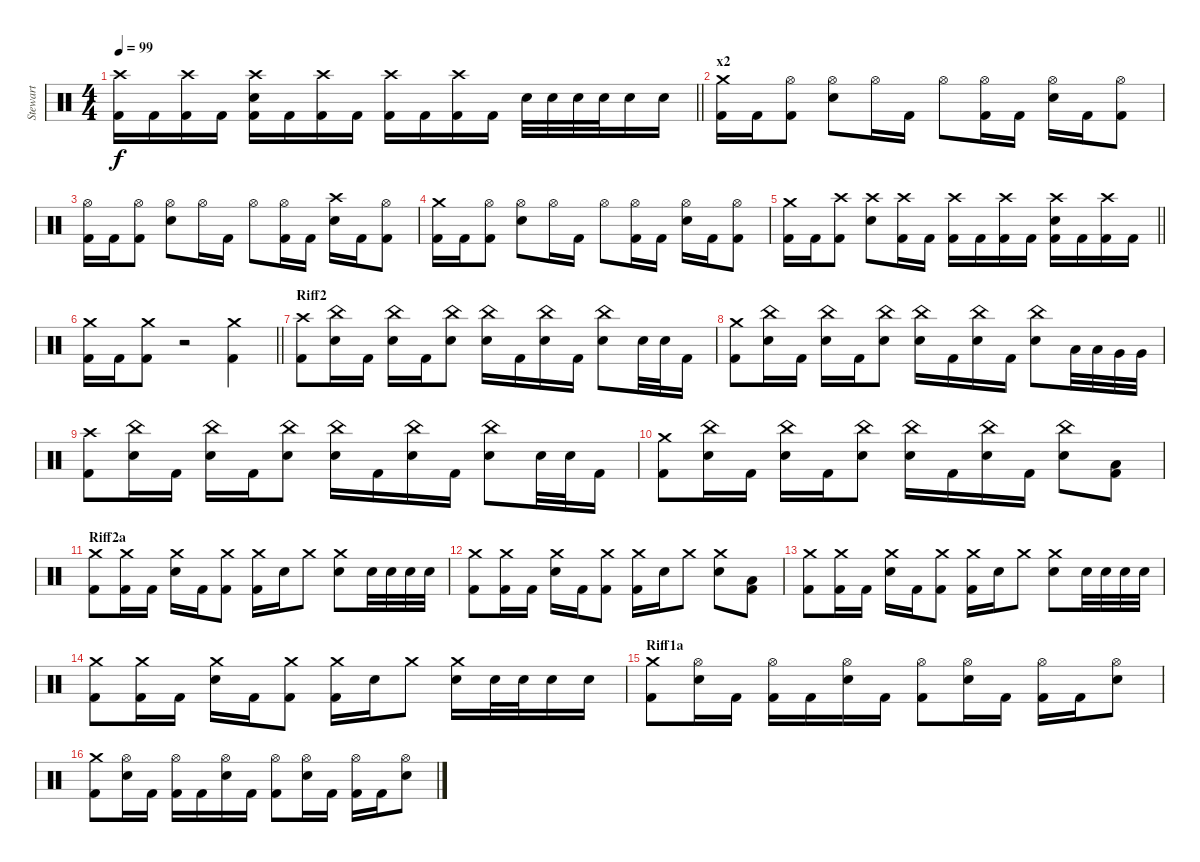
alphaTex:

\track ("Stewart" "Stewart") {instrument percussion}
\staff {score}
\articulation defaults
\ts (4 4)
\tempo 99
\clef neutral
\barLineRight lightlight
\ks c
("Crash high (hit)" "Kick (hit) 2").16{dy f} "Kick (hit) 2".16 ("Crash high (hit)" "Kick (hit) 2").16 "Kick (hit) 2".16 ("Crash high (hit)" "Electric Snare (hit)" "Kick (hit) 2").16 "Kick (hit) 2".16 ("Crash high (hit)" "Kick (hit) 2").16 "Kick (hit) 2".16 ("Crash high (hit)" "Kick (hit) 2").16 "Kick (hit) 2".16 ("Crash high (hit)" "Kick (hit) 2").16 "Kick (hit) 2".16 "Electric Snare (hit)".32 "Electric Snare (hit)".32 "Electric Snare (hit)".32 "Electric Snare (hit)".32 "Electric Snare (hit)".16 "Electric Snare (hit)".16 |
\section ("" "x2")
("Crash medium (hit)" "Kick (hit) 2").16 "Kick (hit) 2".16 ("Hi-Hat (open)" "Kick (hit) 2").8 ("Hi-Hat (open)" "Electric Snare (hit)").8 "Hi-Hat (open)".16 "Kick (hit) 2".16 "Hi-Hat (open)".8 ("Hi-Hat (open)" "Kick (hit) 2").16 "Kick (hit) 2".16 ("Hi-Hat (open)" "Electric Snare (hit)").16 "Kick (hit) 2".16 ("Hi-Hat (open)" "Kick (hit) 2").8 |
("Hi-Hat (open)" "Kick (hit) 2").16 "Kick (hit) 2".16 ("Hi-Hat (open)" "Kick (hit) 2").8 ("Hi-Hat (open)" "Electric Snare (hit)").8 "Hi-Hat (open)".16 "Kick (hit) 2".16 "Hi-Hat (open)".8 ("Hi-Hat (open)" "Kick (hit) 2").16 "Kick (hit) 2".16 ("Crash high (hit)" "Electric Snare (hit)").16 "Kick (hit) 2".16 ("Hi-Hat (open)" "Kick (hit) 2").8 |
("Crash medium (hit)" "Kick (hit) 2").16 "Kick (hit) 2".16 ("Hi-Hat (open)" "Kick (hit) 2").8 ("Hi-Hat (open)" "Electric Snare (hit)").8 "Hi-Hat (open)".16 "Kick (hit) 2".16 "Hi-Hat (open)".8 ("Hi-Hat (open)" "Kick (hit) 2").16 "Kick (hit) 2".16 ("Hi-Hat (open)" "Electric Snare (hit)").16 "Kick (hit) 2".16 ("Hi-Hat (open)" "Kick (hit) 2").8 |
\barLineRight lightlight
("Crash medium (hit)" "Kick (hit) 2").16 "Kick (hit) 2".16 ("Crash high (hit)" "Kick (hit) 2").8 ("Crash high (hit)" "Electric Snare (hit)").8 ("Crash high (hit)" "Kick (hit) 2").16 "Kick (hit) 2".16 ("Crash high (hit)" "Kick (hit) 2").16 "Kick (hit) 2".16 ("Crash high (hit)" "Kick (hit) 2").16 "Kick (hit) 2".16 ("Crash high (hit)" "Electric Snare (hit)" "Kick (hit) 2").16 "Kick (hit) 2".16 ("Crash high (hit)" "Kick (hit) 2").16 "Kick (hit) 2".16 |
\barLineRight lightlight
("Crash medium (hit)" "Kick (hit) 2").16 "Kick (hit) 2".16 ("Crash medium (hit)" "Kick (hit) 2").8 r.2 ("Crash medium (hit)" "Kick (hit) 2").4 |
\section ("" "Riff2")
("Crash high (hit)" "Kick (hit) 2").8 ("China (hit)" "Electric Snare (hit)").16 "Kick (hit) 2".16 ("China (hit)" "Electric Snare (hit)").16 "Kick (hit) 2".16 ("China (hit)" "Electric Snare (hit)").8 ("China (hit)" "Electric Snare (hit)").16 "Kick (hit) 2".16 ("China (hit)" "Electric Snare (hit)").16 "Kick (hit) 2".16 ("China (hit)" "Electric Snare (hit)").8 "Electric Snare (hit)".32 "Electric Snare (hit)".32 "Kick (hit) 2".16 |
("Crash medium (hit)" "Kick (hit) 2").8 ("China (hit)" "Electric Snare (hit)").16 "Kick (hit) 2".16 ("China (hit)" "Electric Snare (hit)").16 "Kick (hit) 2".16 ("China (hit)" "Electric Snare (hit)").8 ("China (hit)" "Electric Snare (hit)").16 "Kick (hit) 2".16 ("China (hit)" "Electric Snare (hit)").16 "Kick (hit) 2".16 ("China (hit)" "Electric Snare (hit)").8 "Low Tom (hit)".32 "Low Tom (hit)".32 "Very Low Tom (hit)".32 "Very Low Tom (hit)".32 |
("Crash high (hit)" "Kick (hit) 2").8 ("China (hit)" "Electric Snare (hit)").16 "Kick (hit) 2".16 ("China (hit)" "Electric Snare (hit)").16 "Kick (hit) 2".16 ("China (hit)" "Electric Snare (hit)").8 ("China (hit)" "Electric Snare (hit)").16 "Kick (hit) 2".16 ("China (hit)" "Electric Snare (hit)").16 "Kick (hit) 2".16 ("China (hit)" "Electric Snare (hit)").8 "Electric Snare (hit)".32 "Electric Snare (hit)".32 "Kick (hit) 2".16 |
("Crash medium (hit)" "Kick (hit) 2").8 ("China (hit)" "Electric Snare (hit)").16 "Kick (hit) 2".16 ("China (hit)" "Electric Snare (hit)").16 "Kick (hit) 2".16 ("China (hit)" "Electric Snare (hit)").8 ("China (hit)" "Electric Snare (hit)").16 "Kick (hit) 2".16 ("China (hit)" "Electric Snare (hit)").16 "Kick (hit) 2".16 ("China (hit)" "Electric Snare (hit)").8 ("Low Tom (hit)" "Kick (hit) 2").8 |
\section ("" "Riff2a")
("Crash medium (hit)" "Kick (hit) 2").8 ("Crash medium (hit)" "Kick (hit) 2").16 "Kick (hit) 2".16 ("Crash medium (hit)" "Electric Snare (hit)").16 "Kick (hit) 2".16 ("Crash medium (hit)" "Kick (hit) 2").8 ("Crash medium (hit)" "Kick (hit) 2").16 "Electric Snare (hit)".16 "Crash medium (hit)".8 ("Crash medium (hit)" "Electric Snare (hit)").8 "Electric Snare (hit)".32 "Electric Snare (hit)".32 "Electric Snare (hit)".32 "Electric Snare (hit)".32 |
("Crash medium (hit)" "Kick (hit) 2").8 ("Crash medium (hit)" "Kick (hit) 2").16 "Kick (hit) 2".16 ("Crash medium (hit)" "Electric Snare (hit)").16 "Kick (hit) 2".16 ("Crash medium (hit)" "Kick (hit) 2").8 ("Crash medium (hit)" "Kick (hit) 2").16 "Electric Snare (hit)".16 "Crash medium (hit)".8 ("Crash medium (hit)" "Electric Snare (hit)").8 ("Low Tom (hit)" "Kick (hit) 2").8 |
("Crash medium (hit)" "Kick (hit) 2").8 ("Crash medium (hit)" "Kick (hit) 2").16 "Kick (hit) 2".16 ("Crash medium (hit)" "Electric Snare (hit)").16 "Kick (hit) 2".16 ("Crash medium (hit)" "Kick (hit) 2").8 ("Crash medium (hit)" "Kick (hit) 2").16 "Electric Snare (hit)".16 "Crash medium (hit)".8 ("Crash medium (hit)" "Electric Snare (hit)").8 "Electric Snare (hit)".32 "Electric Snare (hit)".32 "Electric Snare (hit)".32 "Electric Snare (hit)".32 |
("Crash medium (hit)" "Kick (hit) 2").8 ("Crash medium (hit)" "Kick (hit) 2").16 "Kick (hit) 2".16 ("Crash medium (hit)" "Electric Snare (hit)").16 "Kick (hit) 2".16 ("Crash medium (hit)" "Kick (hit) 2").8 ("Crash medium (hit)" "Kick (hit) 2").16 "Electric Snare (hit)".16 "Crash medium (hit)".8 ("Crash medium (hit)" "Electric Snare (hit)").16 "Electric Snare (hit)".32 "Electric Snare (hit)".32 "Electric Snare (hit)".16 "Electric Snare (hit)".16 |
\section ("" "Riff1a")
("Crash medium (hit)" "Kick (hit) 2").8 ("Hi-Hat (open)" "Electric Snare (hit)").16 "Kick (hit) 2".16 ("Hi-Hat (open)" "Kick (hit) 2").16 "Kick (hit) 2".16 ("Hi-Hat (open)" "Electric Snare (hit)").16 "Kick (hit) 2".16 ("Hi-Hat (open)" "Kick (hit) 2").8 ("Hi-Hat (open)" "Electric Snare (hit)").16 "Kick (hit) 2".16 ("Hi-Hat (open)" "Kick (hit) 2").16 "Kick (hit) 2".16 ("Hi-Hat (open)" "Electric Snare (hit)").8 |
("Crash medium (hit)" "Kick (hit) 2").8 ("Hi-Hat (open)" "Electric Snare (hit)").16 "Kick (hit) 2".16 ("Hi-Hat (open)" "Kick (hit) 2").16 "Kick (hit) 2".16 ("Hi-Hat (open)" "Electric Snare (hit)").16 "Kick (hit) 2".16 ("Hi-Hat (open)" "Kick (hit) 2").8 ("Hi-Hat (open)" "Electric Snare (hit)").16 "Kick (hit) 2".16 ("Hi-Hat (open)" "Kick (hit) 2").16 "Kick (hit) 2".16 ("Hi-Hat (open)" "Electric Snare (hit)").8
